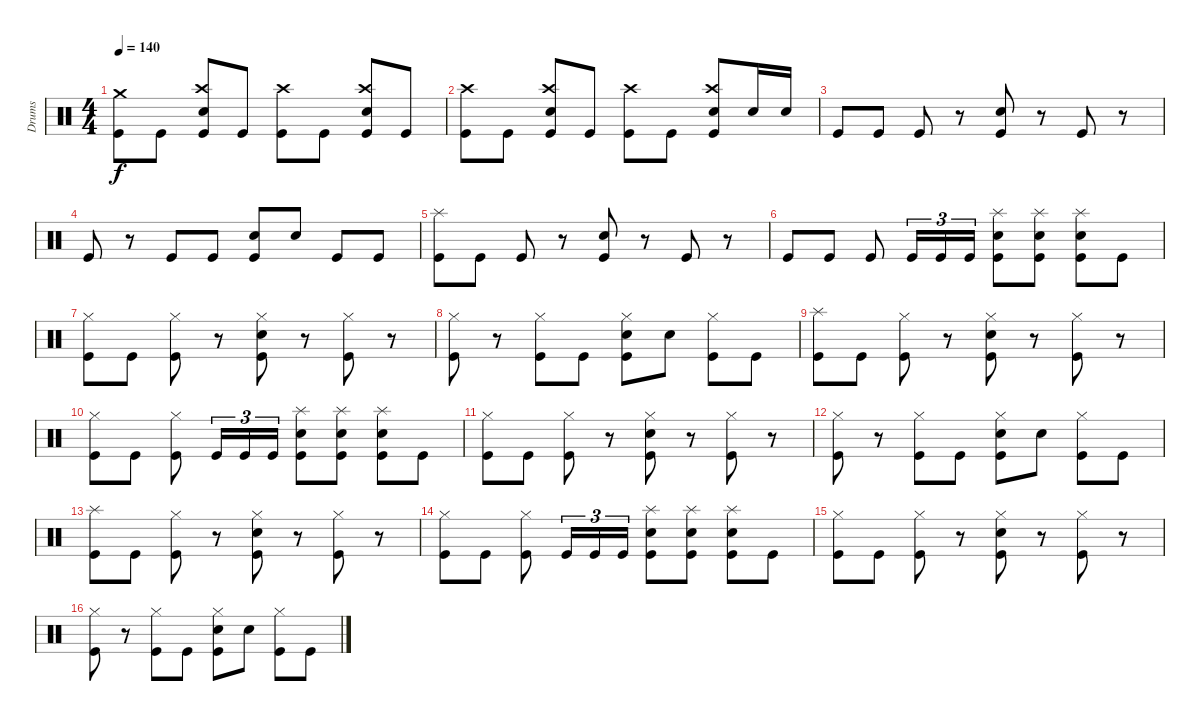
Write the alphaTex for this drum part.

\track ("Drums" "Drums") {instrument percussion}
\staff {score}
\articulation defaults
\ts (4 4)
\tempo 140
\clef neutral
\ks c
("Crash medium (hit)" "Kick (hit)").8{dy f} "Kick (hit)".8 ("Crash high (hit)" "Snare (hit) 2" "Kick (hit)").8 "Kick (hit)".8 ("Crash high (hit)" "Kick (hit)").8 "Kick (hit)".8 ("Crash high (hit)" "Snare (hit) 2" "Kick (hit)").8 "Kick (hit)".8 |
("Crash high (hit)" "Kick (hit)").8 "Kick (hit)".8 ("Crash high (hit)" "Snare (hit) 2" "Kick (hit)").8 "Kick (hit)".8 ("Crash high (hit)" "Kick (hit)").8 "Kick (hit)".8 ("Crash high (hit)" "Snare (hit) 2" "Kick (hit)").8 "Snare (hit) 2".16 "Snare (hit) 2".16 |
"Kick (hit)".8 "Kick (hit)".8 "Kick (hit)".8 r.8 ("Snare (hit) 2" "Kick (hit)").8 r.8 "Kick (hit)".8 r.8 |
"Kick (hit)".8 r.8 "Kick (hit)".8 "Kick (hit)".8 ("Snare (hit) 2" "Kick (hit)").8 "Snare (hit) 2".8 "Kick (hit)".8 "Kick (hit)".8 |
("Splash (hit)" "Kick (hit)").8 "Kick (hit)".8 "Kick (hit)".8 r.8 ("Snare (hit) 2" "Kick (hit)").8 r.8 "Kick (hit)".8 r.8 |
"Kick (hit)".8 "Kick (hit)".8 "Kick (hit)".8 "Kick (hit)".16{tu (3 2)} "Kick (hit)".16{tu (3 2)} "Kick (hit)".16{tu (3 2)} ("Splash (hit)" "Snare (hit) 2" "Kick (hit)").8 ("Splash (hit)" "Snare (hit) 2" "Kick (hit)").8 ("Splash (hit)" "Snare (hit) 2" "Kick (hit)").8 "Kick (hit)".8 |
("Hi-Hat (closed)" "Kick (hit)").8 "Kick (hit)".8 ("Hi-Hat (closed)" "Kick (hit)").8 r.8 ("Hi-Hat (closed)" "Snare (hit) 2" "Kick (hit)").8 r.8 ("Hi-Hat (closed)" "Kick (hit)").8 r.8 |
("Hi-Hat (closed)" "Kick (hit)").8 r.8 ("Hi-Hat (closed)" "Kick (hit)").8 "Kick (hit)".8 ("Hi-Hat (closed)" "Snare (hit) 2" "Kick (hit)").8 "Snare (hit) 2".8 ("Hi-Hat (closed)" "Kick (hit)").8 "Kick (hit)".8 |
("Splash (hit)" "Kick (hit)").8 "Kick (hit)".8 ("Hi-Hat (closed)" "Kick (hit)").8 r.8 ("Hi-Hat (closed)" "Snare (hit) 2" "Kick (hit)").8 r.8 ("Hi-Hat (closed)" "Kick (hit)").8 r.8 |
("Hi-Hat (closed)" "Kick (hit)").8 "Kick (hit)".8 ("Hi-Hat (closed)" "Kick (hit)").8 "Kick (hit)".16{tu (3 2)} "Kick (hit)".16{tu (3 2)} "Kick (hit)".16{tu (3 2)} ("Splash (hit)" "Snare (hit) 2" "Kick (hit)").8 ("Splash (hit)" "Snare (hit) 2" "Kick (hit)").8 ("Splash (hit)" "Snare (hit) 2" "Kick (hit)").8 "Kick (hit)".8 |
("Hi-Hat (closed)" "Kick (hit)").8 "Kick (hit)".8 ("Hi-Hat (closed)" "Kick (hit)").8 r.8 ("Hi-Hat (closed)" "Snare (hit) 2" "Kick (hit)").8 r.8 ("Hi-Hat (closed)" "Kick (hit)").8 r.8 |
("Hi-Hat (closed)" "Kick (hit)").8 r.8 ("Hi-Hat (closed)" "Kick (hit)").8 "Kick (hit)".8 ("Hi-Hat (closed)" "Snare (hit) 2" "Kick (hit)").8 "Snare (hit) 2".8 ("Hi-Hat (closed)" "Kick (hit)").8 "Kick (hit)".8 |
("Splash (hit)" "Kick (hit)").8 "Kick (hit)".8 ("Hi-Hat (closed)" "Kick (hit)").8 r.8 ("Hi-Hat (closed)" "Snare (hit) 2" "Kick (hit)").8 r.8 ("Hi-Hat (closed)" "Kick (hit)").8 r.8 |
("Hi-Hat (closed)" "Kick (hit)").8 "Kick (hit)".8 ("Hi-Hat (closed)" "Kick (hit)").8 "Kick (hit)".16{tu (3 2)} "Kick (hit)".16{tu (3 2)} "Kick (hit)".16{tu (3 2)} ("Splash (hit)" "Snare (hit) 2" "Kick (hit)").8 ("Splash (hit)" "Snare (hit) 2" "Kick (hit)").8 ("Splash (hit)" "Snare (hit) 2" "Kick (hit)").8 "Kick (hit)".8 |
("Hi-Hat (closed)" "Kick (hit)").8 "Kick (hit)".8 ("Hi-Hat (closed)" "Kick (hit)").8 r.8 ("Hi-Hat (closed)" "Snare (hit) 2" "Kick (hit)").8 r.8 ("Hi-Hat (closed)" "Kick (hit)").8 r.8 |
("Hi-Hat (closed)" "Kick (hit)").8 r.8 ("Hi-Hat (closed)" "Kick (hit)").8 "Kick (hit)".8 ("Hi-Hat (closed)" "Snare (hit) 2" "Kick (hit)").8 "Snare (hit) 2".8 ("Hi-Hat (closed)" "Kick (hit)").8 "Kick (hit)".8
